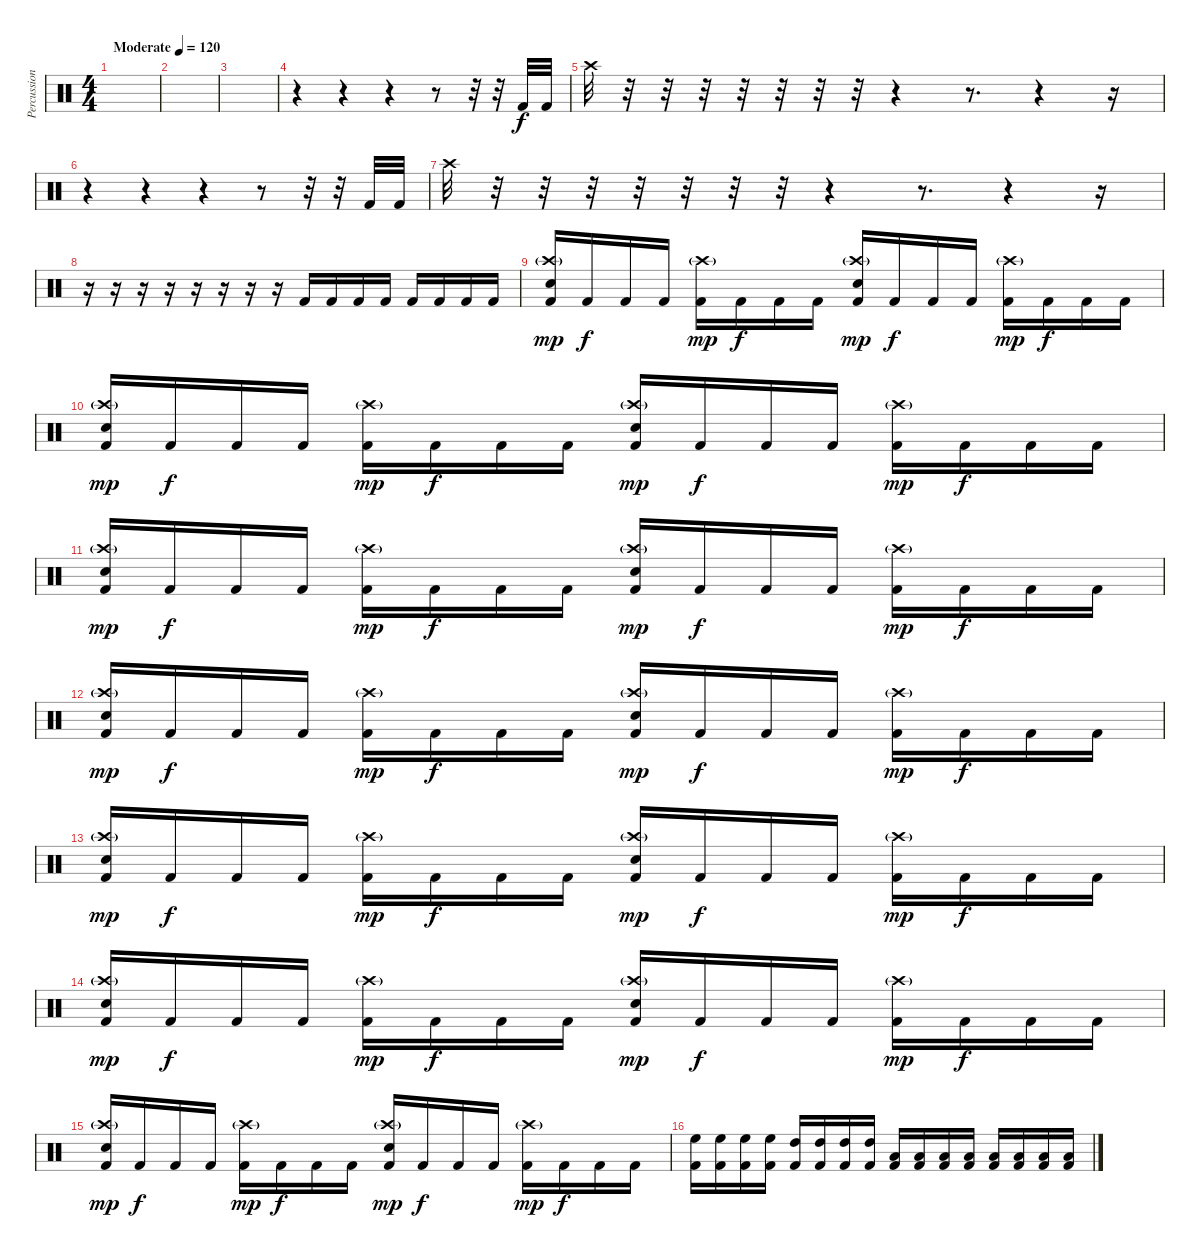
\track ("Percussion" "Percussion") {instrument percussion}
\staff {score}
\articulation defaults
\ts (4 4)
\tempo (120 "Moderate")
\clef neutral
\ks c
|
|
|
r.4 r.4 r.4 r.8 r.32 r.32 "Kick (hit) 2".32 "Kick (hit) 2".32 |
"Crash high (hit)".32 r.32 r.32 r.32 r.32 r.32 r.32 r.32 r.4 r.8{d} r.4 r.16 |
r.4 r.4 r.4 r.8 r.32 r.32 "Kick (hit) 2".32 "Kick (hit) 2".32 |
"Crash high (hit)".32 r.32 r.32 r.32 r.32 r.32 r.32 r.32 r.4 r.8{d} r.4 r.16 |
r.16 r.16 r.16 r.16 r.16 r.16 r.16 r.16 "Kick (hit) 2".16 "Kick (hit) 2".16 "Kick (hit) 2".16 "Kick (hit) 2".16 "Kick (hit) 2".16 "Kick (hit) 2".16 "Kick (hit) 2".16 "Kick (hit) 2".16 |
("Crash high (hit)"{g} "Snare (hit) 2" "Kick (hit) 2").16{dy mp} "Kick (hit) 2".16{dy f} "Kick (hit) 2".16 "Kick (hit) 2".16 ("Crash high (hit)"{g} "Kick (hit) 2").16{dy mp} "Kick (hit) 2".16{dy f} "Kick (hit) 2".16 "Kick (hit) 2".16 ("Crash high (hit)"{g} "Snare (hit) 2" "Kick (hit) 2").16{dy mp} "Kick (hit) 2".16{dy f} "Kick (hit) 2".16 "Kick (hit) 2".16 ("Crash high (hit)"{g} "Kick (hit) 2").16{dy mp} "Kick (hit) 2".16{dy f} "Kick (hit) 2".16 "Kick (hit) 2".16 |
("Crash high (hit)"{g} "Snare (hit) 2" "Kick (hit) 2").16{dy mp} "Kick (hit) 2".16{dy f} "Kick (hit) 2".16 "Kick (hit) 2".16 ("Crash high (hit)"{g} "Kick (hit) 2").16{dy mp} "Kick (hit) 2".16{dy f} "Kick (hit) 2".16 "Kick (hit) 2".16 ("Crash high (hit)"{g} "Snare (hit) 2" "Kick (hit) 2").16{dy mp} "Kick (hit) 2".16{dy f} "Kick (hit) 2".16 "Kick (hit) 2".16 ("Crash high (hit)"{g} "Kick (hit) 2").16{dy mp} "Kick (hit) 2".16{dy f} "Kick (hit) 2".16 "Kick (hit) 2".16 |
("Crash high (hit)"{g} "Snare (hit) 2" "Kick (hit) 2").16{dy mp} "Kick (hit) 2".16{dy f} "Kick (hit) 2".16 "Kick (hit) 2".16 ("Crash high (hit)"{g} "Kick (hit) 2").16{dy mp} "Kick (hit) 2".16{dy f} "Kick (hit) 2".16 "Kick (hit) 2".16 ("Crash high (hit)"{g} "Snare (hit) 2" "Kick (hit) 2").16{dy mp} "Kick (hit) 2".16{dy f} "Kick (hit) 2".16 "Kick (hit) 2".16 ("Crash high (hit)"{g} "Kick (hit) 2").16{dy mp} "Kick (hit) 2".16{dy f} "Kick (hit) 2".16 "Kick (hit) 2".16 |
("Crash high (hit)"{g} "Snare (hit) 2" "Kick (hit) 2").16{dy mp} "Kick (hit) 2".16{dy f} "Kick (hit) 2".16 "Kick (hit) 2".16 ("Crash high (hit)"{g} "Kick (hit) 2").16{dy mp} "Kick (hit) 2".16{dy f} "Kick (hit) 2".16 "Kick (hit) 2".16 ("Crash high (hit)"{g} "Snare (hit) 2" "Kick (hit) 2").16{dy mp} "Kick (hit) 2".16{dy f} "Kick (hit) 2".16 "Kick (hit) 2".16 ("Crash high (hit)"{g} "Kick (hit) 2").16{dy mp} "Kick (hit) 2".16{dy f} "Kick (hit) 2".16 "Kick (hit) 2".16 |
("Crash high (hit)"{g} "Snare (hit) 2" "Kick (hit) 2").16{dy mp} "Kick (hit) 2".16{dy f} "Kick (hit) 2".16 "Kick (hit) 2".16 ("Crash high (hit)"{g} "Kick (hit) 2").16{dy mp} "Kick (hit) 2".16{dy f} "Kick (hit) 2".16 "Kick (hit) 2".16 ("Crash high (hit)"{g} "Snare (hit) 2" "Kick (hit) 2").16{dy mp} "Kick (hit) 2".16{dy f} "Kick (hit) 2".16 "Kick (hit) 2".16 ("Crash high (hit)"{g} "Kick (hit) 2").16{dy mp} "Kick (hit) 2".16{dy f} "Kick (hit) 2".16 "Kick (hit) 2".16 |
("Crash high (hit)"{g} "Snare (hit) 2" "Kick (hit) 2").16{dy mp} "Kick (hit) 2".16{dy f} "Kick (hit) 2".16 "Kick (hit) 2".16 ("Crash high (hit)"{g} "Kick (hit) 2").16{dy mp} "Kick (hit) 2".16{dy f} "Kick (hit) 2".16 "Kick (hit) 2".16 ("Crash high (hit)"{g} "Snare (hit) 2" "Kick (hit) 2").16{dy mp} "Kick (hit) 2".16{dy f} "Kick (hit) 2".16 "Kick (hit) 2".16 ("Crash high (hit)"{g} "Kick (hit) 2").16{dy mp} "Kick (hit) 2".16{dy f} "Kick (hit) 2".16 "Kick (hit) 2".16 |
("Crash high (hit)"{g} "Snare (hit) 2" "Kick (hit) 2").16{dy mp} "Kick (hit) 2".16{dy f} "Kick (hit) 2".16 "Kick (hit) 2".16 ("Crash high (hit)"{g} "Kick (hit) 2").16{dy mp} "Kick (hit) 2".16{dy f} "Kick (hit) 2".16 "Kick (hit) 2".16 ("Crash high (hit)"{g} "Snare (hit) 2" "Kick (hit) 2").16{dy mp} "Kick (hit) 2".16{dy f} "Kick (hit) 2".16 "Kick (hit) 2".16 ("Crash high (hit)"{g} "Kick (hit) 2").16{dy mp} "Kick (hit) 2".16{dy f} "Kick (hit) 2".16 "Kick (hit) 2".16 |
("High Floor Tom (hit)" "Kick (hit) 2").16 ("High Floor Tom (hit)" "Kick (hit) 2").16 ("High Floor Tom (hit)" "Kick (hit) 2").16 ("High Floor Tom (hit)" "Kick (hit) 2").16 ("High Tom (hit)" "Kick (hit) 2").16 ("High Tom (hit)" "Kick (hit) 2").16 ("High Tom (hit)" "Kick (hit) 2").16 ("High Tom (hit)" "Kick (hit) 2").16 ("Low Tom (hit)" "Kick (hit) 2").16 ("Low Tom (hit)" "Kick (hit) 2").16 ("Low Tom (hit)" "Kick (hit) 2").16 ("Low Tom (hit)" "Kick (hit) 2").16 ("Low Floor Tom (hit)" "Kick (hit) 2").16 ("Low Floor Tom (hit)" "Kick (hit) 2").16 ("Low Floor Tom (hit)" "Kick (hit) 2").16 ("Low Floor Tom (hit)" "Kick (hit) 2").16
